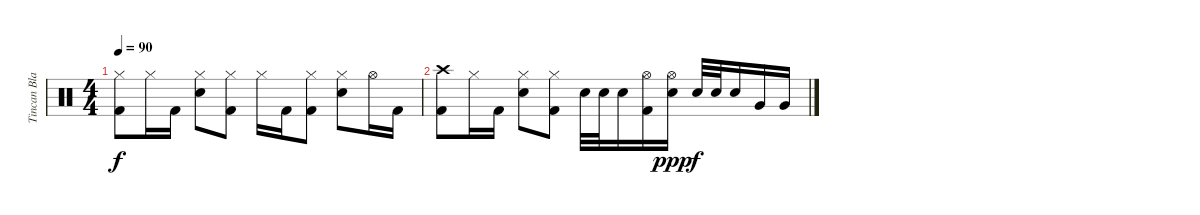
\track ("Tincan Blaster" "Tincan Bla") {instrument percussion}
\staff {score}
\articulation defaults
\ts (4 4)
\tempo 90
\clef neutral
\ks c
("Hi-Hat (closed)" "Kick (hit) 2").8{dy f} "Hi-Hat (closed)".16 "Kick (hit) 2".16 ("Hi-Hat (closed)" "Electric Snare (hit)").8 ("Hi-Hat (closed)" "Kick (hit) 2").8 "Hi-Hat (closed)".16 "Kick (hit) 2".16 ("Hi-Hat (closed)" "Kick (hit) 2").8 ("Hi-Hat (closed)" "Electric Snare (hit)").8 "Hi-Hat (open)".16 "Kick (hit) 2".16 |
("Crash high (hit)" "Kick (hit) 2").8 "Hi-Hat (closed)".16 "Kick (hit) 2".16 ("Hi-Hat (closed)" "Electric Snare (hit)").8 ("Hi-Hat (closed)" "Kick (hit) 2").8 "Electric Snare (hit)".32 "Electric Snare (hit)".32 "Electric Snare (hit)".16 ("Hi-Hat (open)" "Kick (hit) 2").16 ("Hi-Hat (open)" "Electric Snare (hit)").16{dy ppp} "Electric Snare (hit)".32{dy f} "Electric Snare (hit)".32 "Electric Snare (hit)".16 "Very Low Tom (hit)".16 "Very Low Tom (hit)".16
